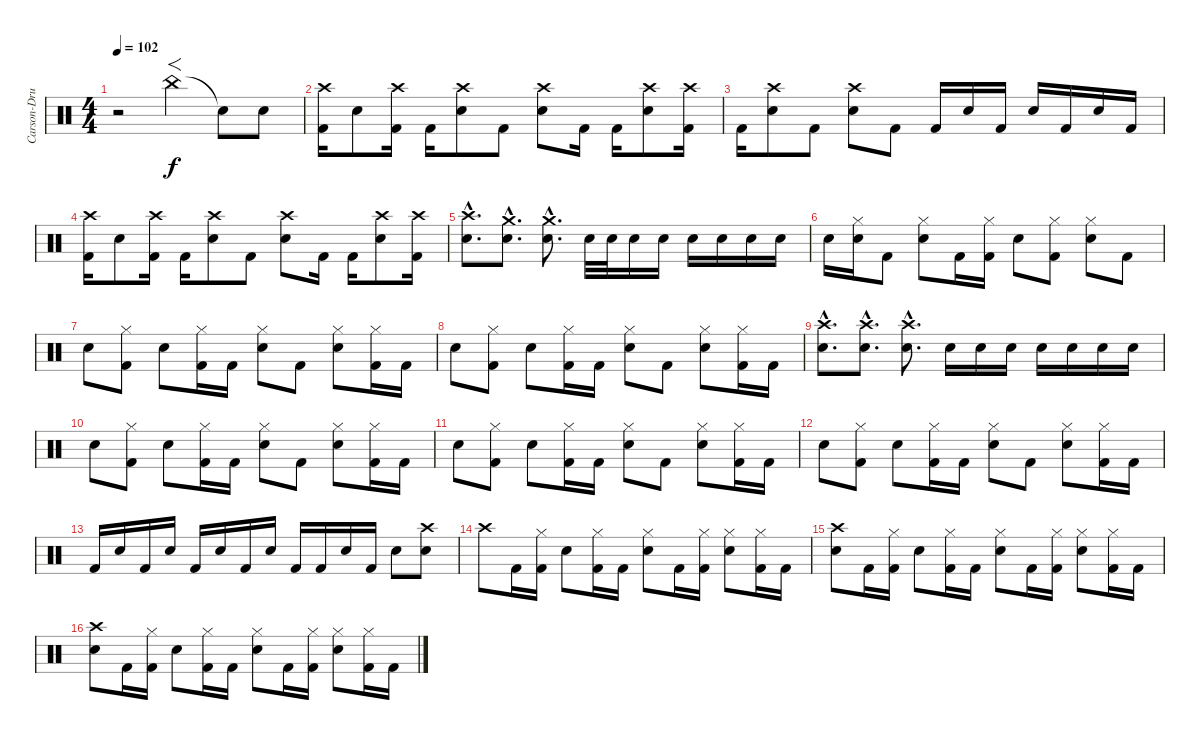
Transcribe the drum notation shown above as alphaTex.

\track ("Carson-Drums" "Carson-Dru") {instrument percussion}
\staff {score}
\articulation defaults
\ts (4 4)
\tempo 102
\clef neutral
\ks c
r.2{dy f} "China (hit)".4{f} "Snare (hit) 2"{t}.8 "Snare (hit) 2".8 |
("Kick (hit) 2" "Crash high (hit)").16 "Snare (hit) 2".8 ("Kick (hit) 2" "Crash high (hit)").16 "Kick (hit) 2".16 ("Snare (hit) 2" "Crash high (hit)").8 "Kick (hit) 2".8 ("Snare (hit) 2" "Crash high (hit)").8 "Kick (hit) 2".16 "Kick (hit) 2".16 ("Snare (hit) 2" "Crash high (hit)").8 ("Kick (hit) 2" "Crash high (hit)").16 |
"Kick (hit) 2".16 ("Snare (hit) 2" "Crash high (hit)").8 "Kick (hit) 2".8 ("Snare (hit) 2" "Crash high (hit)").8 "Kick (hit) 2".8 "Kick (hit) 2".16 "Snare (hit) 2".16 "Kick (hit) 2".16 "Snare (hit) 2".16 "Kick (hit) 2".16 "Snare (hit) 2".16 "Kick (hit) 2".16 |
("Kick (hit) 2" "Crash high (hit)").16 "Snare (hit) 2".8 ("Kick (hit) 2" "Crash high (hit)").16 "Kick (hit) 2".16 ("Snare (hit) 2" "Crash high (hit)").8 "Kick (hit) 2".8 ("Snare (hit) 2" "Crash high (hit)").8 "Kick (hit) 2".16 "Kick (hit) 2".16 ("Snare (hit) 2" "Crash high (hit)").8 ("Kick (hit) 2" "Crash high (hit)").16 |
("Snare (hit) 2"{hac} "Crash high (hit)"{hac}).8{d} ("Snare (hit) 2"{hac} "Crash medium (hit)"{hac}).8{d} ("Snare (hit) 2"{hac} "Crash medium (hit)"{hac}).8{d} "Snare (hit) 2".32 "Snare (hit) 2".32 "Snare (hit) 2".16 "Snare (hit) 2".16 "Snare (hit) 2".16 "Snare (hit) 2".16 "Snare (hit) 2".16 "Snare (hit) 2".16 |
"Snare (hit) 2".16 ("Hi-Hat (closed)" "Snare (hit) 2").16 "Kick (hit) 2".8 ("Hi-Hat (closed)" "Snare (hit) 2").8 "Kick (hit) 2".16 ("Hi-Hat (closed)" "Kick (hit) 2").16 "Snare (hit) 2".8 ("Hi-Hat (closed)" "Kick (hit) 2").8 ("Hi-Hat (closed)" "Snare (hit) 2").8 "Kick (hit) 2".8 |
"Snare (hit) 2".8 ("Hi-Hat (closed)" "Kick (hit) 2").8 "Snare (hit) 2".8 ("Hi-Hat (closed)" "Kick (hit) 2").16 "Kick (hit) 2".16 ("Hi-Hat (closed)" "Snare (hit) 2").8 "Kick (hit) 2".8 ("Hi-Hat (closed)" "Snare (hit) 2").8 ("Hi-Hat (closed)" "Kick (hit) 2").16 "Kick (hit) 2".16 |
"Snare (hit) 2".8 ("Hi-Hat (closed)" "Kick (hit) 2").8 "Snare (hit) 2".8 ("Hi-Hat (closed)" "Kick (hit) 2").16 "Kick (hit) 2".16 ("Hi-Hat (closed)" "Snare (hit) 2").8 "Kick (hit) 2".8 ("Hi-Hat (closed)" "Snare (hit) 2").8 ("Hi-Hat (closed)" "Kick (hit) 2").16 "Kick (hit) 2".16 |
("Crash high (hit)"{hac} "Snare (hit) 2"{hac}).8{d} ("Crash high (hit)"{hac} "Snare (hit) 2"{hac}).8{d} ("Crash high (hit)"{hac} "Snare (hit) 2"{hac}).8{d} "Snare (hit) 2".16 "Snare (hit) 2".16 "Snare (hit) 2".16 "Snare (hit) 2".16 "Snare (hit) 2".16 "Snare (hit) 2".16 "Snare (hit) 2".16 |
"Snare (hit) 2".8 ("Hi-Hat (closed)" "Kick (hit) 2").8 "Snare (hit) 2".8 ("Hi-Hat (closed)" "Kick (hit) 2").16 "Kick (hit) 2".16 ("Hi-Hat (closed)" "Snare (hit) 2").8 "Kick (hit) 2".8 ("Hi-Hat (closed)" "Snare (hit) 2").8 ("Hi-Hat (closed)" "Kick (hit) 2").16 "Kick (hit) 2".16 |
"Snare (hit) 2".8 ("Hi-Hat (closed)" "Kick (hit) 2").8 "Snare (hit) 2".8 ("Hi-Hat (closed)" "Kick (hit) 2").16 "Kick (hit) 2".16 ("Hi-Hat (closed)" "Snare (hit) 2").8 "Kick (hit) 2".8 ("Hi-Hat (closed)" "Snare (hit) 2").8 ("Hi-Hat (closed)" "Kick (hit) 2").16 "Kick (hit) 2".16 |
"Snare (hit) 2".8 ("Hi-Hat (closed)" "Kick (hit) 2").8 "Snare (hit) 2".8 ("Hi-Hat (closed)" "Kick (hit) 2").16 "Kick (hit) 2".16 ("Hi-Hat (closed)" "Snare (hit) 2").8 "Kick (hit) 2".8 ("Hi-Hat (closed)" "Snare (hit) 2").8 ("Hi-Hat (closed)" "Kick (hit) 2").16 "Kick (hit) 2".16 |
"Kick (hit) 2".16 "Snare (hit) 2".16 "Kick (hit) 2".16 "Snare (hit) 2".16 "Kick (hit) 2".16 "Snare (hit) 2".16 "Kick (hit) 2".16 "Snare (hit) 2".16 "Kick (hit) 2".16 "Kick (hit) 2".16 "Snare (hit) 2".16 "Kick (hit) 2".16 "Snare (hit) 2".8 ("Crash high (hit)" "Snare (hit) 2").8 |
"Crash high (hit)".8 "Kick (hit) 2".16 ("Hi-Hat (closed)" "Kick (hit) 2").16 "Snare (hit) 2".8 ("Hi-Hat (closed)" "Kick (hit) 2").16 "Kick (hit) 2".16 ("Hi-Hat (closed)" "Snare (hit) 2").8 "Kick (hit) 2".16 ("Hi-Hat (closed)" "Kick (hit) 2").16 ("Hi-Hat (closed)" "Snare (hit) 2").8 ("Hi-Hat (closed)" "Kick (hit) 2").16 "Kick (hit) 2".16 |
("Crash high (hit)" "Snare (hit) 2").8 "Kick (hit) 2".16 ("Hi-Hat (closed)" "Kick (hit) 2").16 "Snare (hit) 2".8 ("Hi-Hat (closed)" "Kick (hit) 2").16 "Kick (hit) 2".16 ("Hi-Hat (closed)" "Snare (hit) 2").8 "Kick (hit) 2".16 ("Hi-Hat (closed)" "Kick (hit) 2").16 ("Hi-Hat (closed)" "Snare (hit) 2").8 ("Hi-Hat (closed)" "Kick (hit) 2").16 "Kick (hit) 2".16 |
("Crash high (hit)" "Snare (hit) 2").8 "Kick (hit) 2".16 ("Hi-Hat (closed)" "Kick (hit) 2").16 "Snare (hit) 2".8 ("Hi-Hat (closed)" "Kick (hit) 2").16 "Kick (hit) 2".16 ("Hi-Hat (closed)" "Snare (hit) 2").8 "Kick (hit) 2".16 ("Hi-Hat (closed)" "Kick (hit) 2").16 ("Hi-Hat (closed)" "Snare (hit) 2").8 ("Hi-Hat (closed)" "Kick (hit) 2").16 "Kick (hit) 2".16
